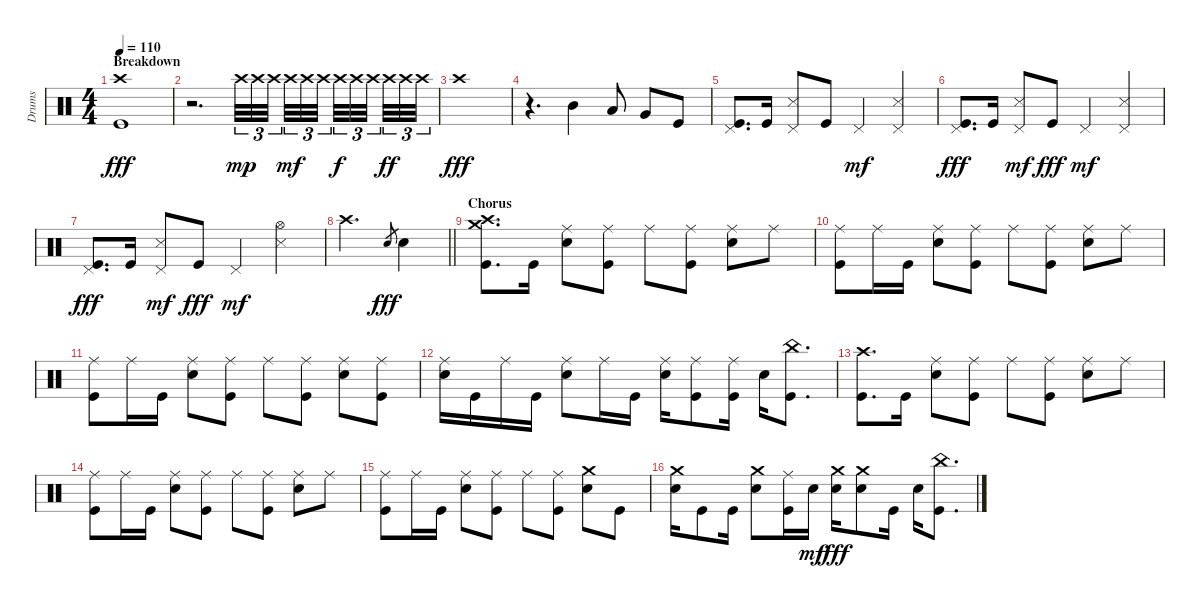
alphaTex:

\track ("Drums" "Drums") {instrument percussion}
\staff {score}
\articulation defaults
\ts (4 4)
\section ("" "Breakdown")
\tempo 110
\clef neutral
\ks c
("Crash high (hit)" "Kick (hit)").1{dy fff} |
r.2{d} "Crash high (hit)".32{tu (3 2) dy mp} "Crash high (hit)".32{tu (3 2)} "Crash high (hit)".32{tu (3 2) beam splitsecondary} "Crash high (hit)".32{tu (3 2) dy mf} "Crash high (hit)".32{tu (3 2)} "Crash high (hit)".32{tu (3 2) beam splitsecondary} "Crash high (hit)".32{tu (3 2) dy f} "Crash high (hit)".32{tu (3 2)} "Crash high (hit)".32{tu (3 2) beam splitsecondary} "Crash high (hit)".32{tu (3 2) dy ff} "Crash high (hit)".32{tu (3 2)} "Crash high (hit)".32{tu (3 2)} |
"Crash high (hit)".1{dy fff} |
r.4{d} "Mid Tom (hit)".4 "Low Tom (hit)".8 "Very Low Tom (hit)".8 "Kick (hit)".8 |
("Pedal Hi-Hat (hit)" "Kick (hit)").8{d} "Kick (hit)".16 ("Pedal Hi-Hat (hit)" "Snare (side stick) 3").8 "Kick (hit)".8 "Pedal Hi-Hat (hit)".4{dy mf} ("Pedal Hi-Hat (hit)" "Snare (side stick) 3").4 |
("Pedal Hi-Hat (hit)" "Kick (hit)").8{d dy fff} "Kick (hit)".16 ("Pedal Hi-Hat (hit)" "Snare (side stick) 3").8{dy mf} "Kick (hit)".8{dy fff} "Pedal Hi-Hat (hit)".4{dy mf} ("Pedal Hi-Hat (hit)" "Snare (side stick) 3").4 |
("Pedal Hi-Hat (hit)" "Kick (hit)").8{d dy fff} "Kick (hit)".16 ("Pedal Hi-Hat (hit)" "Snare (side stick) 3").8{dy mf} "Kick (hit)".8{dy fff} "Pedal Hi-Hat (hit)".4{dy mf} ("Hi-Hat (open)" "Snare (side stick) 3").4 |
\barLineRight lightlight "Crash high (hit)".2{d} "Snare (hit) 2".8{gr dy fff} "Snare (hit) 2".4
|
\section ("" "Chorus")
("Crash medium (hit)" "Crash high (hit)" "Kick (hit)").8{d} "Kick (hit)".16 ("Ride (middle)" "Snare (hit) 2").8 ("Ride (middle)" "Kick (hit)").8 "Ride (middle)".8 ("Ride (middle)" "Kick (hit)").8 ("Ride (middle)" "Snare (hit) 2").8 "Ride (middle)".8 |
("Ride (middle)" "Kick (hit)").8 "Ride (middle)".16 "Kick (hit)".16 ("Ride (middle)" "Snare (hit) 2").8 ("Ride (middle)" "Kick (hit)").8 "Ride (middle)".8 ("Ride (middle)" "Kick (hit)").8 ("Ride (middle)" "Snare (hit) 2").8 "Ride (middle)".8 |
("Ride (middle)" "Kick (hit)").8 "Ride (middle)".16 "Kick (hit)".16 ("Ride (middle)" "Snare (hit) 2").8 ("Ride (middle)" "Kick (hit)").8 "Ride (middle)".8 ("Ride (middle)" "Kick (hit)").8 ("Ride (middle)" "Snare (hit) 2").8 ("Ride (middle)" "Kick (hit)").8 |
("Ride (middle)" "Snare (hit) 2").16 "Kick (hit)".16 "Ride (middle)".16 "Kick (hit)".16 ("Ride (middle)" "Snare (hit) 2").8 "Ride (middle)".16 "Kick (hit)".16 ("Ride (middle)" "Snare (hit) 2").16 ("Ride (middle)" "Kick (hit)").8 ("Ride (middle)" "Kick (hit)").16 "Snare (hit) 2".16 ("China (hit)" "Kick (hit)").8{d} |
("Crash high (hit)" "Kick (hit)").8{d} "Kick (hit)".16 ("Ride (middle)" "Snare (hit) 2").8 ("Ride (middle)" "Kick (hit)").8 "Ride (middle)".8 ("Ride (middle)" "Kick (hit)").8 ("Ride (middle)" "Snare (hit) 2").8 "Ride (middle)".8 |
("Ride (middle)" "Kick (hit)").8 "Ride (middle)".16 "Kick (hit)".16 ("Ride (middle)" "Snare (hit) 2").8 ("Ride (middle)" "Kick (hit)").8 "Ride (middle)".8 ("Ride (middle)" "Kick (hit)").8 ("Ride (middle)" "Snare (hit) 2").8 "Ride (middle)".8 |
("Ride (middle)" "Kick (hit)").8 "Ride (middle)".16 "Kick (hit)".16 ("Ride (middle)" "Snare (hit) 2").8 ("Ride (middle)" "Kick (hit)").8 "Ride (middle)".8 ("Ride (middle)" "Kick (hit)").8 ("Crash medium (hit)" "Snare (hit) 2").8 "Kick (hit)".8 |
("Crash medium (hit)" "Snare (hit) 2").16 "Kick (hit)".8 "Kick (hit)".16 ("Crash medium (hit)" "Snare (hit) 2").8 ("Ride (middle)" "Kick (hit)").16 "Snare (hit) 2".16{dy mf} ("Crash medium (hit)" "Snare (hit) 2").16{dy fff} ("Crash medium (hit)" "Snare (hit) 2").8 "Kick (hit)".16 "Snare (hit) 2".16 ("China (hit)" "Kick (hit)").8{d}
